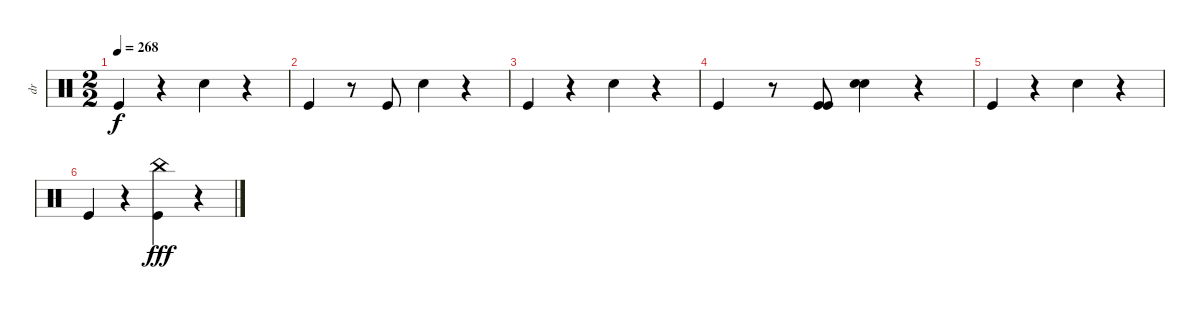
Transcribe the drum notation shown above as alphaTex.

\track ("dr" "dr") {instrument percussion}
\staff {score}
\articulation defaults
\ts (2 2)
\tempo 268
\clef neutral
\ks c "Kick (hit)".4{dy f}
r.4 "Snare (hit) 2".4 r.4 |
"Kick (hit)".4 r.8 "Kick (hit)".8 "Snare (hit) 2".4 r.4 |
"Kick (hit)".4 r.4 "Snare (hit) 2".4 r.4 |
"Kick (hit)".4 r.8 ("Kick (hit)" "Kick (hit)").8 ("Snare (hit) 2" "Snare (hit) 2").4 r.4 |
"Kick (hit)".4 r.4 "Snare (hit) 2".4 r.4 |
"Kick (hit)".4 r.4 ("China (hit)" "Kick (hit)").4{dy fff} r.4
